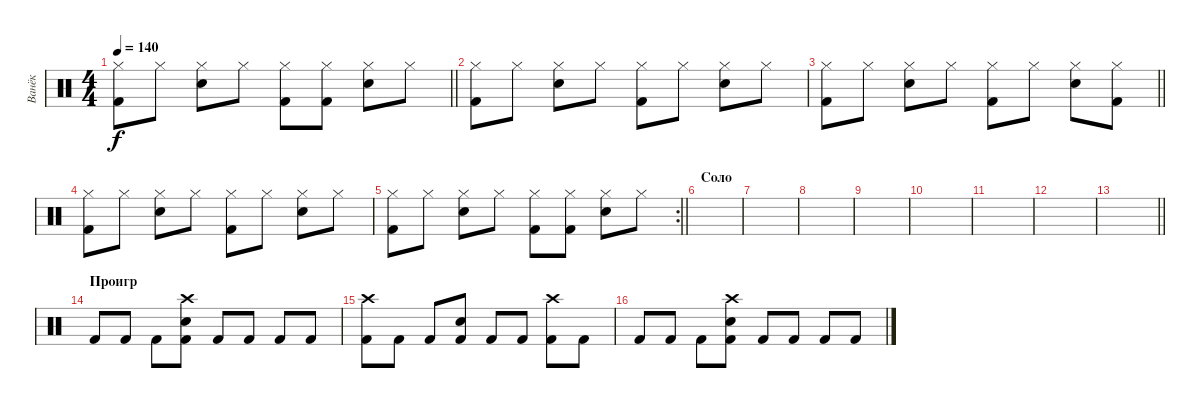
\track ("Ванёк" "Ванёк") {instrument percussion}
\staff {score}
\articulation defaults
\ts (4 4)
\tempo 140
\clef neutral
\barLineRight lightlight
\ks c
("Hi-Hat (closed)" "Kick (hit) 2").8{dy f} "Hi-Hat (closed)".8 ("Hi-Hat (closed)" "Electric Snare (hit)").8 "Hi-Hat (closed)".8 ("Hi-Hat (closed)" "Kick (hit) 2").8 ("Hi-Hat (closed)" "Kick (hit) 2").8 ("Hi-Hat (closed)" "Electric Snare (hit)").8 "Hi-Hat (closed)".8 |
("Hi-Hat (closed)" "Kick (hit) 2").8 "Hi-Hat (closed)".8 ("Hi-Hat (closed)" "Electric Snare (hit)").8 "Hi-Hat (closed)".8 ("Hi-Hat (closed)" "Kick (hit) 2").8 "Hi-Hat (closed)".8 ("Hi-Hat (closed)" "Electric Snare (hit)").8 "Hi-Hat (closed)".8 |
\barLineRight lightlight
("Hi-Hat (closed)" "Kick (hit) 2").8 "Hi-Hat (closed)".8 ("Hi-Hat (closed)" "Electric Snare (hit)").8 "Hi-Hat (closed)".8 ("Hi-Hat (closed)" "Kick (hit) 2").8 "Hi-Hat (closed)".8 ("Hi-Hat (closed)" "Electric Snare (hit)").8 ("Hi-Hat (closed)" "Kick (hit) 2").8 |
("Hi-Hat (closed)" "Kick (hit) 2").8 "Hi-Hat (closed)".8 ("Hi-Hat (closed)" "Electric Snare (hit)").8 "Hi-Hat (closed)".8 ("Hi-Hat (closed)" "Kick (hit) 2").8 "Hi-Hat (closed)".8 ("Hi-Hat (closed)" "Electric Snare (hit)").8 "Hi-Hat (closed)".8 |
\rc 2
\barLineRight lightlight
("Hi-Hat (closed)" "Kick (hit) 2").8 "Hi-Hat (closed)".8 ("Hi-Hat (closed)" "Electric Snare (hit)").8 "Hi-Hat (closed)".8 ("Hi-Hat (closed)" "Kick (hit) 2").8 ("Hi-Hat (closed)" "Kick (hit) 2").8 ("Hi-Hat (closed)" "Electric Snare (hit)").8 "Hi-Hat (closed)".8 |
\section ("" "Соло")
|
|
|
|
|
|
|
\barLineRight lightlight
|
\section ("" "Проигр")
"Kick (hit) 2".8 "Kick (hit) 2".8 "Kick (hit) 2".8 ("Kick (hit) 2" "Crash high (hit)" "Electric Snare (hit)").8 "Kick (hit) 2".8 "Kick (hit) 2".8 "Kick (hit) 2".8 "Kick (hit) 2".8 |
("Kick (hit) 2" "Crash high (hit)").8 "Kick (hit) 2".8 "Kick (hit) 2".8 ("Kick (hit) 2" "Electric Snare (hit)").8 "Kick (hit) 2".8 "Kick (hit) 2".8 ("Kick (hit) 2" "Crash high (hit)").8 "Kick (hit) 2".8 |
"Kick (hit) 2".8 "Kick (hit) 2".8 "Kick (hit) 2".8 ("Kick (hit) 2" "Crash high (hit)" "Electric Snare (hit)").8 "Kick (hit) 2".8 "Kick (hit) 2".8 "Kick (hit) 2".8 "Kick (hit) 2".8
